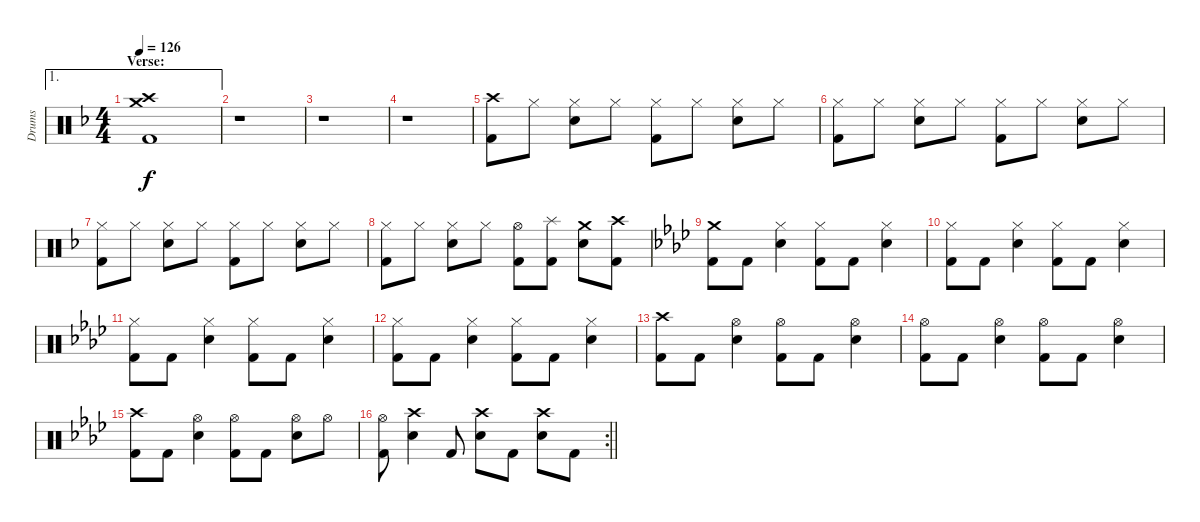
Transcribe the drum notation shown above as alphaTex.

\track ("Drums" "Drums") {instrument percussion}
\staff {score}
\articulation defaults
\ae 1
\ts (4 4)
\section ("" "Verse:")
\tempo 126
\clef neutral
\ks dminor
("Kick (hit) 2" "Crash medium (hit)" "Crash high (hit)").1{dy f} |
r.1 |
r.1 |
r.1 |
("Crash high (hit)" "Kick (hit) 2").8 "Hi-Hat (closed)".8 ("Hi-Hat (closed)" "Electric Snare (hit)").8 "Hi-Hat (closed)".8 ("Hi-Hat (closed)" "Kick (hit) 2").8 "Hi-Hat (closed)".8 ("Hi-Hat (closed)" "Electric Snare (hit)").8 "Hi-Hat (closed)".8 |
("Hi-Hat (closed)" "Kick (hit) 2").8 "Hi-Hat (closed)".8 ("Hi-Hat (closed)" "Electric Snare (hit)").8 "Hi-Hat (closed)".8 ("Hi-Hat (closed)" "Kick (hit) 2").8 "Hi-Hat (closed)".8 ("Hi-Hat (closed)" "Electric Snare (hit)").8 "Hi-Hat (closed)".8 |
("Hi-Hat (closed)" "Kick (hit) 2").8 "Hi-Hat (closed)".8 ("Hi-Hat (closed)" "Electric Snare (hit)").8 "Hi-Hat (closed)".8 ("Hi-Hat (closed)" "Kick (hit) 2").8 "Hi-Hat (closed)".8 ("Hi-Hat (closed)" "Electric Snare (hit)").8 "Hi-Hat (closed)".8 |
("Hi-Hat (closed)" "Kick (hit) 2").8 "Hi-Hat (closed)".8 ("Hi-Hat (closed)" "Electric Snare (hit)").8 "Hi-Hat (closed)".8 ("Hi-Hat (open)" "Kick (hit) 2").8 ("Splash (hit)" "Kick (hit) 2").8 ("Crash medium (hit)" "Electric Snare (hit)").8 ("Crash high (hit)" "Kick (hit) 2").8 |
\ks fminor
("Crash medium (hit)" "Kick (hit) 2").8 "Kick (hit) 2".8 ("Hi-Hat (closed)" "Electric Snare (hit)").4 ("Hi-Hat (closed)" "Kick (hit) 2").8 "Kick (hit) 2".8 ("Hi-Hat (closed)" "Electric Snare (hit)").4 |
("Hi-Hat (closed)" "Kick (hit) 2").8 "Kick (hit) 2".8 ("Hi-Hat (closed)" "Electric Snare (hit)").4 ("Hi-Hat (closed)" "Kick (hit) 2").8 "Kick (hit) 2".8 ("Hi-Hat (closed)" "Electric Snare (hit)").4 |
("Hi-Hat (closed)" "Kick (hit) 2").8 "Kick (hit) 2".8 ("Hi-Hat (closed)" "Electric Snare (hit)").4 ("Hi-Hat (closed)" "Kick (hit) 2").8 "Kick (hit) 2".8 ("Hi-Hat (closed)" "Electric Snare (hit)").4 |
("Hi-Hat (closed)" "Kick (hit) 2").8 "Kick (hit) 2".8 ("Hi-Hat (closed)" "Electric Snare (hit)").4 ("Hi-Hat (closed)" "Kick (hit) 2").8 "Kick (hit) 2".8 ("Hi-Hat (closed)" "Electric Snare (hit)").4 |
("Crash high (hit)" "Kick (hit) 2").8 "Kick (hit) 2".8 ("Hi-Hat (open)" "Electric Snare (hit)").4 ("Hi-Hat (open)" "Kick (hit) 2").8 "Kick (hit) 2".8 ("Hi-Hat (open)" "Electric Snare (hit)").4 |
("Hi-Hat (open)" "Kick (hit) 2").8 "Kick (hit) 2".8 ("Hi-Hat (open)" "Electric Snare (hit)").4 ("Hi-Hat (open)" "Kick (hit) 2").8 "Kick (hit) 2".8 ("Hi-Hat (open)" "Electric Snare (hit)").4 |
("Crash high (hit)" "Kick (hit) 2").8 "Kick (hit) 2".8 ("Hi-Hat (open)" "Electric Snare (hit)").4 ("Hi-Hat (open)" "Kick (hit) 2").8 "Kick (hit) 2".8 ("Hi-Hat (open)" "Electric Snare (hit)").8 "Hi-Hat (open)".8 |
\rc 2
\barLineRight lightlight
("Hi-Hat (open)" "Kick (hit) 2").8 ("Crash high (hit)" "Electric Snare (hit)").4 "Kick (hit) 2".8 ("Crash high (hit)" "Electric Snare (hit)").8 "Kick (hit) 2".8 ("Crash high (hit)" "Electric Snare (hit)").8 "Kick (hit) 2".8
